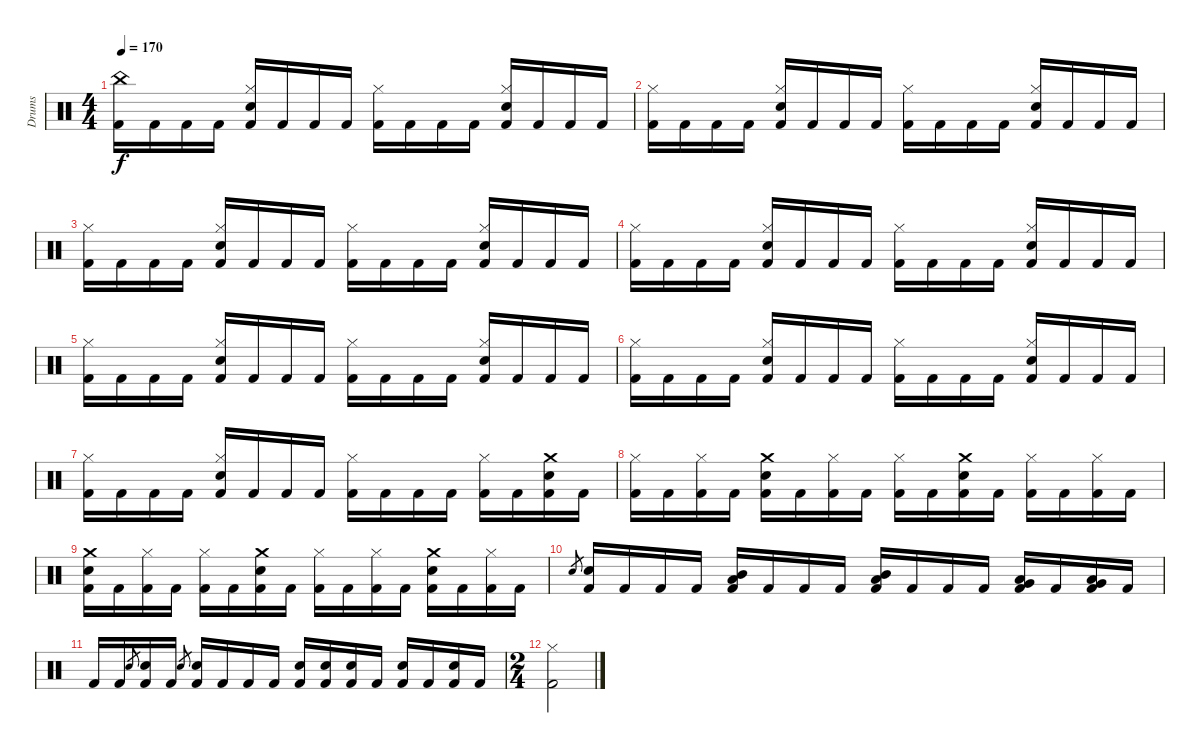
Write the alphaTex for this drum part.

\track ("Drums" "Drums") {instrument percussion}
\staff {score}
\articulation defaults
\ts (4 4)
\tempo 170
\clef neutral
\ks c
("China (hit)" "Kick (hit) 2").16{dy f} "Kick (hit) 2".16 "Kick (hit) 2".16 "Kick (hit) 2".16 ("Hi-Hat (closed)" "Snare (hit) 2" "Kick (hit) 2").16 "Kick (hit) 2".16 "Kick (hit) 2".16 "Kick (hit) 2".16 ("Hi-Hat (closed)" "Kick (hit) 2").16 "Kick (hit) 2".16 "Kick (hit) 2".16 "Kick (hit) 2".16 ("Hi-Hat (closed)" "Snare (hit) 2" "Kick (hit) 2").16 "Kick (hit) 2".16 "Kick (hit) 2".16 "Kick (hit) 2".16 |
("Hi-Hat (closed)" "Kick (hit) 2").16 "Kick (hit) 2".16 "Kick (hit) 2".16 "Kick (hit) 2".16 ("Hi-Hat (closed)" "Snare (hit) 2" "Kick (hit) 2").16 "Kick (hit) 2".16 "Kick (hit) 2".16 "Kick (hit) 2".16 ("Hi-Hat (closed)" "Kick (hit) 2").16 "Kick (hit) 2".16 "Kick (hit) 2".16 "Kick (hit) 2".16 ("Hi-Hat (closed)" "Snare (hit) 2" "Kick (hit) 2").16 "Kick (hit) 2".16 "Kick (hit) 2".16 "Kick (hit) 2".16 |
("Hi-Hat (closed)" "Kick (hit) 2").16 "Kick (hit) 2".16 "Kick (hit) 2".16 "Kick (hit) 2".16 ("Hi-Hat (closed)" "Snare (hit) 2" "Kick (hit) 2").16 "Kick (hit) 2".16 "Kick (hit) 2".16 "Kick (hit) 2".16 ("Hi-Hat (closed)" "Kick (hit) 2").16 "Kick (hit) 2".16 "Kick (hit) 2".16 "Kick (hit) 2".16 ("Hi-Hat (closed)" "Snare (hit) 2" "Kick (hit) 2").16 "Kick (hit) 2".16 "Kick (hit) 2".16 "Kick (hit) 2".16 |
("Hi-Hat (closed)" "Kick (hit) 2").16 "Kick (hit) 2".16 "Kick (hit) 2".16 "Kick (hit) 2".16 ("Hi-Hat (closed)" "Snare (hit) 2" "Kick (hit) 2").16 "Kick (hit) 2".16 "Kick (hit) 2".16 "Kick (hit) 2".16 ("Hi-Hat (closed)" "Kick (hit) 2").16 "Kick (hit) 2".16 "Kick (hit) 2".16 "Kick (hit) 2".16 ("Hi-Hat (closed)" "Snare (hit) 2" "Kick (hit) 2").16 "Kick (hit) 2".16 "Kick (hit) 2".16 "Kick (hit) 2".16 |
("Hi-Hat (closed)" "Kick (hit) 2").16 "Kick (hit) 2".16 "Kick (hit) 2".16 "Kick (hit) 2".16 ("Hi-Hat (closed)" "Snare (hit) 2" "Kick (hit) 2").16 "Kick (hit) 2".16 "Kick (hit) 2".16 "Kick (hit) 2".16 ("Hi-Hat (closed)" "Kick (hit) 2").16 "Kick (hit) 2".16 "Kick (hit) 2".16 "Kick (hit) 2".16 ("Hi-Hat (closed)" "Snare (hit) 2" "Kick (hit) 2").16 "Kick (hit) 2".16 "Kick (hit) 2".16 "Kick (hit) 2".16 |
("Hi-Hat (closed)" "Kick (hit) 2").16 "Kick (hit) 2".16 "Kick (hit) 2".16 "Kick (hit) 2".16 ("Hi-Hat (closed)" "Snare (hit) 2" "Kick (hit) 2").16 "Kick (hit) 2".16 "Kick (hit) 2".16 "Kick (hit) 2".16 ("Hi-Hat (closed)" "Kick (hit) 2").16 "Kick (hit) 2".16 "Kick (hit) 2".16 "Kick (hit) 2".16 ("Hi-Hat (closed)" "Snare (hit) 2" "Kick (hit) 2").16 "Kick (hit) 2".16 "Kick (hit) 2".16 "Kick (hit) 2".16 |
("Hi-Hat (closed)" "Kick (hit) 2").16 "Kick (hit) 2".16 "Kick (hit) 2".16 "Kick (hit) 2".16 ("Hi-Hat (closed)" "Snare (hit) 2" "Kick (hit) 2").16 "Kick (hit) 2".16 "Kick (hit) 2".16 "Kick (hit) 2".16 ("Hi-Hat (closed)" "Kick (hit) 2").16 "Kick (hit) 2".16 "Kick (hit) 2".16 "Kick (hit) 2".16 ("Hi-Hat (closed)" "Kick (hit) 2").16 "Kick (hit) 2".16 ("Crash medium (hit)" "Snare (hit) 2" "Kick (hit) 2").16 "Kick (hit) 2".16 |
("Hi-Hat (closed)" "Kick (hit) 2").16 "Kick (hit) 2".16 ("Hi-Hat (closed)" "Kick (hit) 2").16 "Kick (hit) 2".16 ("Crash medium (hit)" "Snare (hit) 2" "Kick (hit) 2").16 "Kick (hit) 2".16 ("Hi-Hat (closed)" "Kick (hit) 2").16 "Kick (hit) 2".16 ("Hi-Hat (closed)" "Kick (hit) 2").16 "Kick (hit) 2".16 ("Crash medium (hit)" "Snare (hit) 2" "Kick (hit) 2").16 "Kick (hit) 2".16 ("Hi-Hat (closed)" "Kick (hit) 2").16 "Kick (hit) 2".16 ("Hi-Hat (closed)" "Kick (hit) 2").16 "Kick (hit) 2".16 |
("Crash medium (hit)" "Snare (hit) 2" "Kick (hit) 2").16 "Kick (hit) 2".16 ("Hi-Hat (closed)" "Kick (hit) 2").16 "Kick (hit) 2".16 ("Hi-Hat (closed)" "Kick (hit) 2").16 "Kick (hit) 2".16 ("Crash medium (hit)" "Snare (hit) 2" "Kick (hit) 2").16 "Kick (hit) 2".16 ("Hi-Hat (closed)" "Kick (hit) 2").16 "Kick (hit) 2".16 ("Hi-Hat (closed)" "Kick (hit) 2").16 "Kick (hit) 2".16 ("Crash medium (hit)" "Snare (hit) 2" "Kick (hit) 2").16 "Kick (hit) 2".16 ("Hi-Hat (closed)" "Kick (hit) 2").16 "Kick (hit) 2".16 |
"Snare (hit) 2".8{gr} ("Snare (hit) 2" "Kick (hit) 2").16 "Kick (hit) 2".16 "Kick (hit) 2".16 "Kick (hit) 2".16 ("Mid Tom (hit)" "Low Tom (hit)" "Kick (hit) 2").16 "Kick (hit) 2".16 "Kick (hit) 2".16 "Kick (hit) 2".16 ("Mid Tom (hit)" "Low Tom (hit)" "Kick (hit) 2").16 "Kick (hit) 2".16 "Kick (hit) 2".16 "Kick (hit) 2".16 ("Low Tom (hit)" "Very Low Tom (hit)" "Kick (hit) 2").16 "Kick (hit) 2".16 ("Low Tom (hit)" "Very Low Tom (hit)" "Kick (hit) 2").16 "Kick (hit) 2".16 |
"Kick (hit) 2".16 "Kick (hit) 2".16 "Snare (hit) 2".8{gr} ("Snare (hit) 2" "Kick (hit) 2").16 "Kick (hit) 2".16 "Snare (hit) 2".8{gr} ("Snare (hit) 2" "Kick (hit) 2").16 "Kick (hit) 2".16 "Kick (hit) 2".16 "Kick (hit) 2".16 ("Snare (hit) 2" "Kick (hit) 2").16 ("Snare (hit) 2" "Kick (hit) 2").16 ("Snare (hit) 2" "Kick (hit) 2").16 "Kick (hit) 2".16 ("Snare (hit) 2" "Kick (hit) 2").16 "Kick (hit) 2".16 ("Snare (hit) 2" "Kick (hit) 2").16 "Kick (hit) 2".16 |
\ts (2 4)
("Hi-Hat (closed)" "Kick (hit) 2").2
